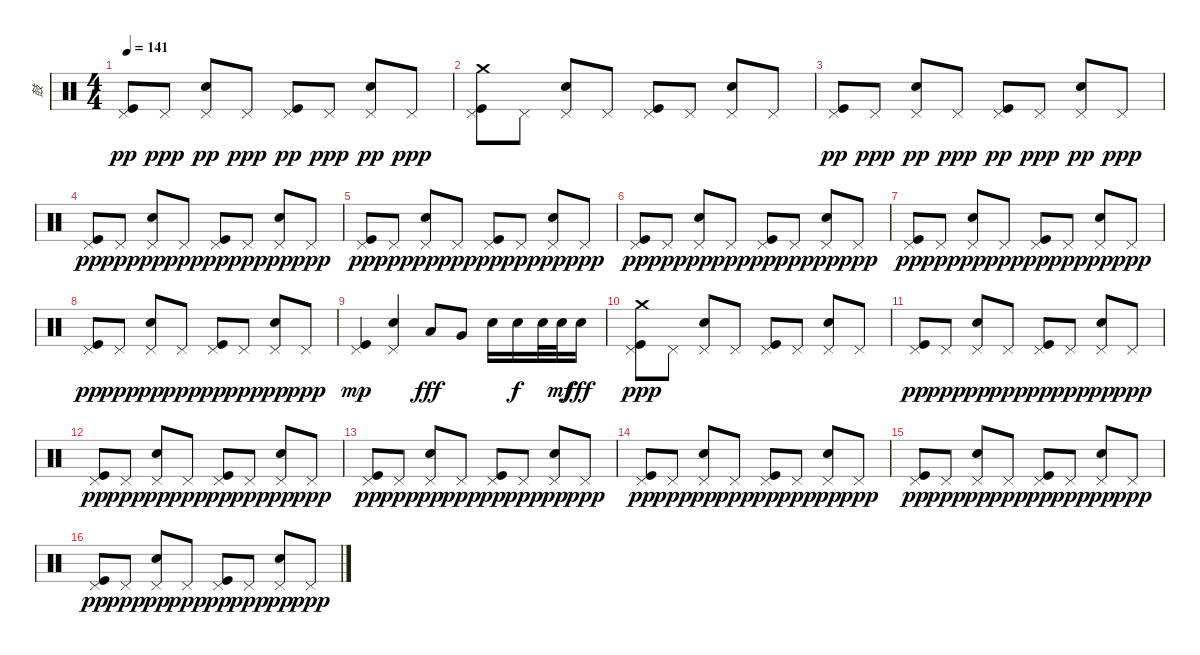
\track ("鼓" "鼓") {instrument percussion}
\staff {score}
\articulation defaults
\ts (4 4)
\tempo 141
\clef neutral
\ks c
("Kick (hit)" "Pedal Hi-Hat (hit)").8{dy pp} "Pedal Hi-Hat (hit)".8{dy ppp} ("Snare (hit) 2" "Pedal Hi-Hat (hit)").8{dy pp} "Pedal Hi-Hat (hit)".8{dy ppp} ("Kick (hit)" "Pedal Hi-Hat (hit)").8{dy pp} "Pedal Hi-Hat (hit)".8{dy ppp} ("Snare (hit) 2" "Pedal Hi-Hat (hit)").8{dy pp} "Pedal Hi-Hat (hit)".8{dy ppp} |
("Crash medium (hit)" "Kick (hit)" "Pedal Hi-Hat (hit)").8 "Pedal Hi-Hat (hit)".8 ("Snare (hit) 2" "Pedal Hi-Hat (hit)").8 "Pedal Hi-Hat (hit)".8 ("Kick (hit)" "Pedal Hi-Hat (hit)").8 "Pedal Hi-Hat (hit)".8 ("Snare (hit) 2" "Pedal Hi-Hat (hit)").8 "Pedal Hi-Hat (hit)".8 |
("Kick (hit)" "Pedal Hi-Hat (hit)").8{dy pp} "Pedal Hi-Hat (hit)".8{dy ppp} ("Snare (hit) 2" "Pedal Hi-Hat (hit)").8{dy pp} "Pedal Hi-Hat (hit)".8{dy ppp} ("Kick (hit)" "Pedal Hi-Hat (hit)").8{dy pp} "Pedal Hi-Hat (hit)".8{dy ppp} ("Snare (hit) 2" "Pedal Hi-Hat (hit)").8{dy pp} "Pedal Hi-Hat (hit)".8{dy ppp} |
("Kick (hit)" "Pedal Hi-Hat (hit)").8{dy pp} "Pedal Hi-Hat (hit)".8{dy ppp} ("Snare (hit) 2" "Pedal Hi-Hat (hit)").8{dy pp} "Pedal Hi-Hat (hit)".8{dy ppp} ("Kick (hit)" "Pedal Hi-Hat (hit)").8{dy pp} "Pedal Hi-Hat (hit)".8{dy ppp} ("Snare (hit) 2" "Pedal Hi-Hat (hit)").8{dy pp} "Pedal Hi-Hat (hit)".8{dy ppp} |
("Kick (hit)" "Pedal Hi-Hat (hit)").8{dy pp} "Pedal Hi-Hat (hit)".8{dy ppp} ("Snare (hit) 2" "Pedal Hi-Hat (hit)").8{dy pp} "Pedal Hi-Hat (hit)".8{dy ppp} ("Kick (hit)" "Pedal Hi-Hat (hit)").8{dy pp} "Pedal Hi-Hat (hit)".8{dy ppp} ("Snare (hit) 2" "Pedal Hi-Hat (hit)").8{dy pp} "Pedal Hi-Hat (hit)".8{dy ppp} |
("Kick (hit)" "Pedal Hi-Hat (hit)").8{dy pp} "Pedal Hi-Hat (hit)".8{dy ppp} ("Snare (hit) 2" "Pedal Hi-Hat (hit)").8{dy pp} "Pedal Hi-Hat (hit)".8{dy ppp} ("Kick (hit)" "Pedal Hi-Hat (hit)").8{dy pp} "Pedal Hi-Hat (hit)".8{dy ppp} ("Snare (hit) 2" "Pedal Hi-Hat (hit)").8{dy pp} "Pedal Hi-Hat (hit)".8{dy ppp} |
("Kick (hit)" "Pedal Hi-Hat (hit)").8{dy pp} "Pedal Hi-Hat (hit)".8{dy ppp} ("Snare (hit) 2" "Pedal Hi-Hat (hit)").8{dy pp} "Pedal Hi-Hat (hit)".8{dy ppp} ("Kick (hit)" "Pedal Hi-Hat (hit)").8{dy pp} "Pedal Hi-Hat (hit)".8{dy ppp} ("Snare (hit) 2" "Pedal Hi-Hat (hit)").8{dy pp} "Pedal Hi-Hat (hit)".8{dy ppp} |
("Kick (hit)" "Pedal Hi-Hat (hit)").8{dy pp} "Pedal Hi-Hat (hit)".8{dy ppp} ("Snare (hit) 2" "Pedal Hi-Hat (hit)").8{dy pp} "Pedal Hi-Hat (hit)".8{dy ppp} ("Kick (hit)" "Pedal Hi-Hat (hit)").8{dy pp} "Pedal Hi-Hat (hit)".8{dy ppp} ("Snare (hit) 2" "Pedal Hi-Hat (hit)").8{dy pp} "Pedal Hi-Hat (hit)".8{dy ppp} |
("Kick (hit)" "Pedal Hi-Hat (hit)").4{dy mp} ("Snare (hit) 2" "Pedal Hi-Hat (hit)").4 "Low Tom (hit)".8{dy fff} "Very Low Tom (hit)".8 "Snare (hit) 2".16 "Snare (hit) 2".16{dy f} "Snare (hit) 2".32 "Snare (hit) 2".32{dy mf} "Snare (hit) 2".16{dy fff} |
("Crash medium (hit)" "Kick (hit)" "Pedal Hi-Hat (hit)").8{dy ppp} "Pedal Hi-Hat (hit)".8 ("Snare (hit) 2" "Pedal Hi-Hat (hit)").8 "Pedal Hi-Hat (hit)".8 ("Kick (hit)" "Pedal Hi-Hat (hit)").8 "Pedal Hi-Hat (hit)".8 ("Snare (hit) 2" "Pedal Hi-Hat (hit)").8 "Pedal Hi-Hat (hit)".8 |
("Kick (hit)" "Pedal Hi-Hat (hit)").8{dy pp} "Pedal Hi-Hat (hit)".8{dy ppp} ("Snare (hit) 2" "Pedal Hi-Hat (hit)").8{dy pp} "Pedal Hi-Hat (hit)".8{dy ppp} ("Kick (hit)" "Pedal Hi-Hat (hit)").8{dy pp} "Pedal Hi-Hat (hit)".8{dy ppp} ("Snare (hit) 2" "Pedal Hi-Hat (hit)").8{dy pp} "Pedal Hi-Hat (hit)".8{dy ppp} |
("Kick (hit)" "Pedal Hi-Hat (hit)").8{dy pp} "Pedal Hi-Hat (hit)".8{dy ppp} ("Snare (hit) 2" "Pedal Hi-Hat (hit)").8{dy pp} "Pedal Hi-Hat (hit)".8{dy ppp} ("Kick (hit)" "Pedal Hi-Hat (hit)").8{dy pp} "Pedal Hi-Hat (hit)".8{dy ppp} ("Snare (hit) 2" "Pedal Hi-Hat (hit)").8{dy pp} "Pedal Hi-Hat (hit)".8{dy ppp} |
("Kick (hit)" "Pedal Hi-Hat (hit)").8{dy pp} "Pedal Hi-Hat (hit)".8{dy ppp} ("Snare (hit) 2" "Pedal Hi-Hat (hit)").8{dy pp} "Pedal Hi-Hat (hit)".8{dy ppp} ("Kick (hit)" "Pedal Hi-Hat (hit)").8{dy pp} "Pedal Hi-Hat (hit)".8{dy ppp} ("Snare (hit) 2" "Pedal Hi-Hat (hit)").8{dy pp} "Pedal Hi-Hat (hit)".8{dy ppp} |
("Kick (hit)" "Pedal Hi-Hat (hit)").8{dy pp} "Pedal Hi-Hat (hit)".8{dy ppp} ("Snare (hit) 2" "Pedal Hi-Hat (hit)").8{dy pp} "Pedal Hi-Hat (hit)".8{dy ppp} ("Kick (hit)" "Pedal Hi-Hat (hit)").8{dy pp} "Pedal Hi-Hat (hit)".8{dy ppp} ("Snare (hit) 2" "Pedal Hi-Hat (hit)").8{dy pp} "Pedal Hi-Hat (hit)".8{dy ppp} |
("Kick (hit)" "Pedal Hi-Hat (hit)").8{dy pp} "Pedal Hi-Hat (hit)".8{dy ppp} ("Snare (hit) 2" "Pedal Hi-Hat (hit)").8{dy pp} "Pedal Hi-Hat (hit)".8{dy ppp} ("Kick (hit)" "Pedal Hi-Hat (hit)").8{dy pp} "Pedal Hi-Hat (hit)".8{dy ppp} ("Snare (hit) 2" "Pedal Hi-Hat (hit)").8{dy pp} "Pedal Hi-Hat (hit)".8{dy ppp} |
("Kick (hit)" "Pedal Hi-Hat (hit)").8{dy pp} "Pedal Hi-Hat (hit)".8{dy ppp} ("Snare (hit) 2" "Pedal Hi-Hat (hit)").8{dy pp} "Pedal Hi-Hat (hit)".8{dy ppp} ("Kick (hit)" "Pedal Hi-Hat (hit)").8{dy pp} "Pedal Hi-Hat (hit)".8{dy ppp} ("Snare (hit) 2" "Pedal Hi-Hat (hit)").8{dy pp} "Pedal Hi-Hat (hit)".8{dy ppp}
